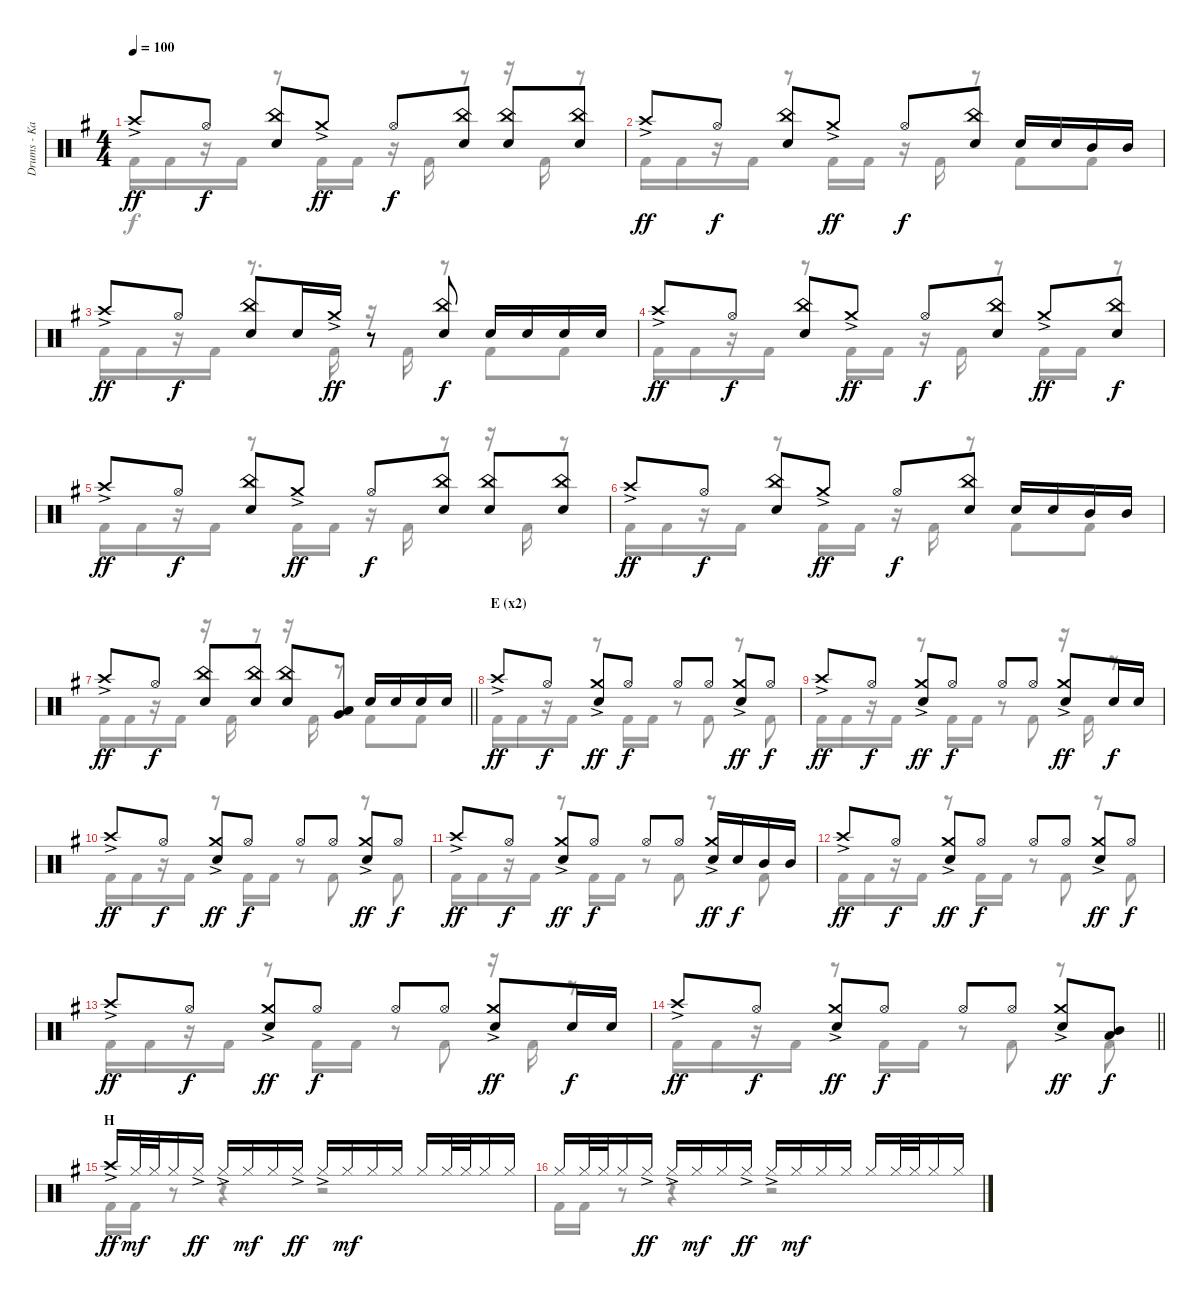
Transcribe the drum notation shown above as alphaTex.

\track ("Drums - Kai" "Drums - Ka") {instrument percussion}
\staff {score}
\articulation defaults
\voice
\ts (4 4)
\tempo 100
\clef neutral
\ks g "Crash high (hit)"{ac}.8{dy ff} "Hi-Hat (open)".8{dy f}
("China (hit)" "Electric Snare (hit)").8 "Crash medium (hit)"{ac}.8{dy ff} "Hi-Hat (open)".8{dy f} ("China (hit)" "Electric Snare (hit)").8 ("China (hit)" "Electric Snare (hit)").8 ("China (hit)" "Electric Snare (hit)").8 |
"Crash high (hit)"{ac}.8{dy ff} "Hi-Hat (open)".8{dy f} ("China (hit)" "Electric Snare (hit)").8 "Crash medium (hit)"{ac}.8{dy ff} "Hi-Hat (open)".8{dy f} ("China (hit)" "Electric Snare (hit)").8 "Electric Snare (hit)".16 "Electric Snare (hit)".16 "Mid Tom (hit)".16 "Mid Tom (hit)".16 |
"Crash high (hit)"{ac}.8{dy ff} "Hi-Hat (open)".8{dy f} ("China (hit)" "Electric Snare (hit)").8 "Electric Snare (hit)".16 "Crash medium (hit)"{ac}.16{dy ff} r.8 ("China (hit)" "Electric Snare (hit)").8{dy f} "Electric Snare (hit)".16 "Electric Snare (hit)".16 "Electric Snare (hit)".16 "Electric Snare (hit)".16 |
"Crash high (hit)"{ac}.8{dy ff} "Hi-Hat (open)".8{dy f} ("China (hit)" "Electric Snare (hit)").8 "Crash medium (hit)"{ac}.8{dy ff} "Hi-Hat (open)".8{dy f} ("China (hit)" "Electric Snare (hit)").8 "Crash medium (hit)"{ac}.8{dy ff} ("China (hit)" "Electric Snare (hit)").8{dy f} |
"Crash high (hit)"{ac}.8{dy ff} "Hi-Hat (open)".8{dy f} ("China (hit)" "Electric Snare (hit)").8 "Crash medium (hit)"{ac}.8{dy ff} "Hi-Hat (open)".8{dy f} ("China (hit)" "Electric Snare (hit)").8 ("China (hit)" "Electric Snare (hit)").8 ("China (hit)" "Electric Snare (hit)").8 |
"Crash high (hit)"{ac}.8{dy ff} "Hi-Hat (open)".8{dy f} ("China (hit)" "Electric Snare (hit)").8 "Crash medium (hit)"{ac}.8{dy ff} "Hi-Hat (open)".8{dy f} ("China (hit)" "Electric Snare (hit)").8 "Electric Snare (hit)".16 "Electric Snare (hit)".16 "Mid Tom (hit)".16 "Mid Tom (hit)".16 |
\barLineRight lightlight "Crash high (hit)"{ac}.8{dy ff} "Hi-Hat (open)".8{dy f}
("China (hit)" "Electric Snare (hit)").8 ("China (hit)" "Electric Snare (hit)").8 ("China (hit)" "Electric Snare (hit)").8 ("Low Tom (hit)" "Very Low Tom (hit)").8 "Electric Snare (hit)".16 "Electric Snare (hit)".16 "Electric Snare (hit)".16 "Electric Snare (hit)".16 |
\section ("" "E (x2)")
"Crash high (hit)"{ac}.8{dy ff} "Hi-Hat (open)".8{dy f} ("Crash medium (hit)"{ac} "Electric Snare (hit)").8{dy ff} "Hi-Hat (open)".8{dy f} "Hi-Hat (open)".8 "Hi-Hat (open)".8 ("Crash medium (hit)"{ac} "Electric Snare (hit)").8{dy ff} "Hi-Hat (open)".8{dy f} |
"Crash high (hit)"{ac}.8{dy ff} "Hi-Hat (open)".8{dy f} ("Crash medium (hit)"{ac} "Electric Snare (hit)").8{dy ff} "Hi-Hat (open)".8{dy f} "Hi-Hat (open)".8 "Hi-Hat (open)".8 ("Crash medium (hit)"{ac} "Electric Snare (hit)").8{dy ff} "Electric Snare (hit)".16{dy f} "Electric Snare (hit)".16 |
"Crash high (hit)"{ac}.8{dy ff} "Hi-Hat (open)".8{dy f} ("Crash medium (hit)"{ac} "Electric Snare (hit)").8{dy ff} "Hi-Hat (open)".8{dy f} "Hi-Hat (open)".8 "Hi-Hat (open)".8 ("Crash medium (hit)"{ac} "Electric Snare (hit)").8{dy ff} "Hi-Hat (open)".8{dy f} |
"Crash high (hit)"{ac}.8{dy ff} "Hi-Hat (open)".8{dy f} ("Crash medium (hit)"{ac} "Electric Snare (hit)").8{dy ff} "Hi-Hat (open)".8{dy f} "Hi-Hat (open)".8 "Hi-Hat (open)".8 ("Crash medium (hit)"{ac} "Electric Snare (hit)").16{dy ff} "Electric Snare (hit)".16{dy f} "Mid Tom (hit)".16 "Mid Tom (hit)".16 |
"Crash high (hit)"{ac}.8{dy ff} "Hi-Hat (open)".8{dy f} ("Crash medium (hit)"{ac} "Electric Snare (hit)").8{dy ff} "Hi-Hat (open)".8{dy f} "Hi-Hat (open)".8 "Hi-Hat (open)".8 ("Crash medium (hit)"{ac} "Electric Snare (hit)").8{dy ff} "Hi-Hat (open)".8{dy f} |
"Crash high (hit)"{ac}.8{dy ff} "Hi-Hat (open)".8{dy f} ("Crash medium (hit)"{ac} "Electric Snare (hit)").8{dy ff} "Hi-Hat (open)".8{dy f} "Hi-Hat (open)".8 "Hi-Hat (open)".8 ("Crash medium (hit)"{ac} "Electric Snare (hit)").8{dy ff} "Electric Snare (hit)".16{dy f} "Electric Snare (hit)".16 |
\barLineRight lightlight "Crash high (hit)"{ac}.8{dy ff} "Hi-Hat (open)".8{dy f}
("Crash medium (hit)"{ac} "Electric Snare (hit)").8{dy ff} "Hi-Hat (open)".8{dy f} "Hi-Hat (open)".8 "Hi-Hat (open)".8 ("Crash medium (hit)"{ac} "Electric Snare (hit)").8{dy ff} ("Mid Tom (hit)" "Low Tom (hit)").8{dy f} |
\section ("" "H")
"Crash high (hit)"{ac}.16{dy ff} "Hi-Hat (closed)".32{dy mf} "Hi-Hat (closed)".32 "Hi-Hat (closed)".16 "Hi-Hat (closed)"{ac}.16{dy ff} "Hi-Hat (closed)"{ac}.16 "Hi-Hat (closed)".16{dy mf} "Hi-Hat (closed)".16 "Hi-Hat (closed)"{ac}.16{dy ff} "Hi-Hat (closed)"{ac}.16 "Hi-Hat (closed)".16{dy mf} "Hi-Hat (closed)".16 "Hi-Hat (closed)".16 "Hi-Hat (closed)".16 "Hi-Hat (closed)".32 "Hi-Hat (closed)".32 "Hi-Hat (closed)".16 "Hi-Hat (closed)".16 |
"Hi-Hat (closed)".16 "Hi-Hat (closed)".32 "Hi-Hat (closed)".32 "Hi-Hat (closed)".16 "Hi-Hat (closed)"{ac}.16{dy ff} "Hi-Hat (closed)"{ac}.16 "Hi-Hat (closed)".16{dy mf} "Hi-Hat (closed)".16 "Hi-Hat (closed)"{ac}.16{dy ff} "Hi-Hat (closed)"{ac}.16 "Hi-Hat (closed)".16{dy mf} "Hi-Hat (closed)".16 "Hi-Hat (closed)".16 "Hi-Hat (closed)".16 "Hi-Hat (closed)".32 "Hi-Hat (closed)".32 "Hi-Hat (closed)".16 "Hi-Hat (closed)".16
\voice
\clef neutral
\ottava regular
\simile none
\ks g "Kick (hit) 2".16{dy f} "Kick (hit) 2".16
r.16 "Kick (hit) 2".16 r.8 "Kick (hit) 2".16 "Kick (hit) 2".16 r.16 "Kick (hit) 2".16 r.8 r.16 "Kick (hit) 2".16 r.8 |
"Kick (hit) 2".16 "Kick (hit) 2".16 r.16 "Kick (hit) 2".16 r.8 "Kick (hit) 2".16 "Kick (hit) 2".16 r.16 "Kick (hit) 2".16 r.8 "Kick (hit) 2".8 "Kick (hit) 2".8 |
"Kick (hit) 2".16 "Kick (hit) 2".16 r.16 "Kick (hit) 2".16 r.8{d} "Kick (hit) 2".16 r.16 "Kick (hit) 2".16 r.8 "Kick (hit) 2".8 "Kick (hit) 2".8 |
"Kick (hit) 2".16 "Kick (hit) 2".16 r.16 "Kick (hit) 2".16 r.8 "Kick (hit) 2".16 "Kick (hit) 2".16 r.16 "Kick (hit) 2".16 r.8 "Kick (hit) 2".16 "Kick (hit) 2".16 r.8 |
"Kick (hit) 2".16 "Kick (hit) 2".16 r.16 "Kick (hit) 2".16 r.8 "Kick (hit) 2".16 "Kick (hit) 2".16 r.16 "Kick (hit) 2".16 r.8 r.16 "Kick (hit) 2".16 r.8 |
"Kick (hit) 2".16 "Kick (hit) 2".16 r.16 "Kick (hit) 2".16 r.8 "Kick (hit) 2".16 "Kick (hit) 2".16 r.16 "Kick (hit) 2".16 r.8 "Kick (hit) 2".8 "Kick (hit) 2".8 |
\barLineRight lightlight "Kick (hit) 2".16 "Kick (hit) 2".16
r.16 "Kick (hit) 2".16 r.16 "Kick (hit) 2".16 r.8 r.16 "Kick (hit) 2".16 r.8 "Kick (hit) 2".8 "Kick (hit) 2".8 |
"Kick (hit) 2".16 "Kick (hit) 2".16 r.16 "Kick (hit) 2".16 r.8 "Kick (hit) 2".16 "Kick (hit) 2".16 r.8 "Kick (hit) 2".8 r.8 "Kick (hit) 2".8 |
"Kick (hit) 2".16 "Kick (hit) 2".16 r.16 "Kick (hit) 2".16 r.8 "Kick (hit) 2".16 "Kick (hit) 2".16 r.8 "Kick (hit) 2".8 r.16 "Kick (hit) 2".16 r.8 |
"Kick (hit) 2".16 "Kick (hit) 2".16 r.16 "Kick (hit) 2".16 r.8 "Kick (hit) 2".16 "Kick (hit) 2".16 r.8 "Kick (hit) 2".8 r.8 "Kick (hit) 2".8 |
"Kick (hit) 2".16 "Kick (hit) 2".16 r.16 "Kick (hit) 2".16 r.8 "Kick (hit) 2".16 "Kick (hit) 2".16 r.8 "Kick (hit) 2".8 r.8 "Kick (hit) 2".8 |
"Kick (hit) 2".16 "Kick (hit) 2".16 r.16 "Kick (hit) 2".16 r.8 "Kick (hit) 2".16 "Kick (hit) 2".16 r.8 "Kick (hit) 2".8 r.8 "Kick (hit) 2".8 |
"Kick (hit) 2".16 "Kick (hit) 2".16 r.16 "Kick (hit) 2".16 r.8 "Kick (hit) 2".16 "Kick (hit) 2".16 r.8 "Kick (hit) 2".8 r.16 "Kick (hit) 2".16 r.8 |
\barLineRight lightlight "Kick (hit) 2".16 "Kick (hit) 2".16
r.16 "Kick (hit) 2".16 r.8 "Kick (hit) 2".16 "Kick (hit) 2".16 r.8 "Kick (hit) 2".8 r.8 "Kick (hit) 2".8 |
"Kick (hit) 2".16 "Kick (hit) 2".16 r.8 r.4 r.2 |
"Kick (hit) 2".16 "Kick (hit) 2".16 r.8 r.4 r.2
